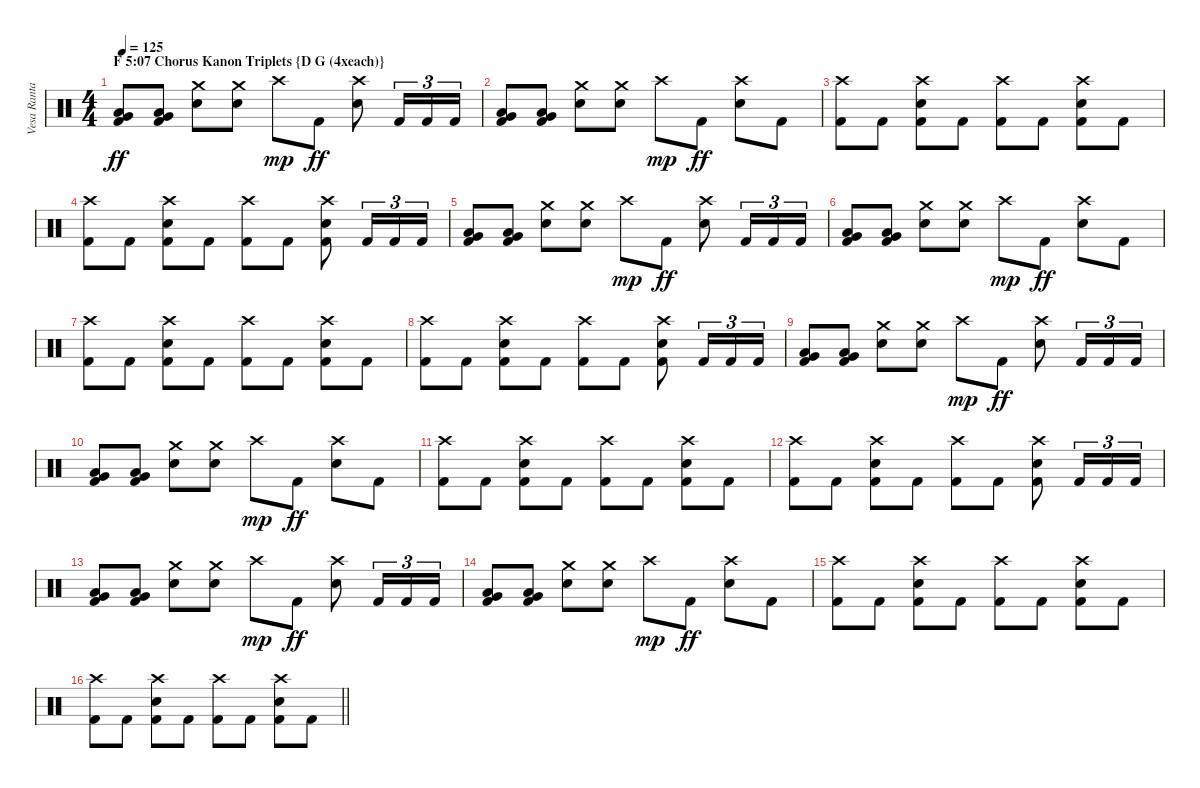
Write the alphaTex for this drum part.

\track ("Vesa Ranta (drums)" "Vesa Ranta") {instrument percussion}
\staff {score}
\articulation defaults
\ts (4 4)
\section ("" "F 5:07 Chorus Kanon Triplets {D G (4xeach)}")
\tempo 125
\clef neutral
\ks c
("Low Tom (hit)" "Very Low Tom (hit)" "Kick (hit) 2").8{dy ff} ("Low Tom (hit)" "Very Low Tom (hit)" "Kick (hit) 2").8 ("Crash medium (hit)" "Electric Snare (hit)").8 ("Crash medium (hit)" "Electric Snare (hit)").8 "Crash high (hit)".8{dy mp} "Kick (hit) 2".8{dy ff} ("Crash high (hit)" "Electric Snare (hit)").8 "Kick (hit) 2".16{tu (3 2)} "Kick (hit) 2".16{tu (3 2)} "Kick (hit) 2".16{tu (3 2)} |
("Low Tom (hit)" "Very Low Tom (hit)" "Kick (hit) 2").8 ("Low Tom (hit)" "Very Low Tom (hit)" "Kick (hit) 2").8 ("Crash medium (hit)" "Electric Snare (hit)").8 ("Crash medium (hit)" "Electric Snare (hit)").8 "Crash high (hit)".8{dy mp} "Kick (hit) 2".8{dy ff} ("Crash high (hit)" "Electric Snare (hit)").8 "Kick (hit) 2".8 |
("Crash high (hit)" "Kick (hit) 2").8 "Kick (hit) 2".8 ("Crash high (hit)" "Electric Snare (hit)" "Kick (hit) 2").8 "Kick (hit) 2".8 ("Crash high (hit)" "Kick (hit) 2").8 "Kick (hit) 2".8 ("Crash high (hit)" "Electric Snare (hit)" "Kick (hit) 2").8 "Kick (hit) 2".8 |
("Crash high (hit)" "Kick (hit) 2").8 "Kick (hit) 2".8 ("Crash high (hit)" "Electric Snare (hit)" "Kick (hit) 2").8 "Kick (hit) 2".8 ("Crash high (hit)" "Kick (hit) 2").8 "Kick (hit) 2".8 ("Crash high (hit)" "Electric Snare (hit)" "Kick (hit) 2").8 "Kick (hit) 2".16{tu (3 2)} "Kick (hit) 2".16{tu (3 2)} "Kick (hit) 2".16{tu (3 2)} |
("Low Tom (hit)" "Very Low Tom (hit)" "Kick (hit) 2").8 ("Low Tom (hit)" "Very Low Tom (hit)" "Kick (hit) 2").8 ("Crash medium (hit)" "Electric Snare (hit)").8 ("Crash medium (hit)" "Electric Snare (hit)").8 "Crash high (hit)".8{dy mp} "Kick (hit) 2".8{dy ff} ("Crash high (hit)" "Electric Snare (hit)").8 "Kick (hit) 2".16{tu (3 2)} "Kick (hit) 2".16{tu (3 2)} "Kick (hit) 2".16{tu (3 2)} |
("Low Tom (hit)" "Very Low Tom (hit)" "Kick (hit) 2").8 ("Low Tom (hit)" "Very Low Tom (hit)" "Kick (hit) 2").8 ("Crash medium (hit)" "Electric Snare (hit)").8 ("Crash medium (hit)" "Electric Snare (hit)").8 "Crash high (hit)".8{dy mp} "Kick (hit) 2".8{dy ff} ("Crash high (hit)" "Electric Snare (hit)").8 "Kick (hit) 2".8 |
("Crash high (hit)" "Kick (hit) 2").8 "Kick (hit) 2".8 ("Crash high (hit)" "Electric Snare (hit)" "Kick (hit) 2").8 "Kick (hit) 2".8 ("Crash high (hit)" "Kick (hit) 2").8 "Kick (hit) 2".8 ("Crash high (hit)" "Electric Snare (hit)" "Kick (hit) 2").8 "Kick (hit) 2".8 |
("Crash high (hit)" "Kick (hit) 2").8 "Kick (hit) 2".8 ("Crash high (hit)" "Electric Snare (hit)" "Kick (hit) 2").8 "Kick (hit) 2".8 ("Crash high (hit)" "Kick (hit) 2").8 "Kick (hit) 2".8 ("Crash high (hit)" "Electric Snare (hit)" "Kick (hit) 2").8 "Kick (hit) 2".16{tu (3 2)} "Kick (hit) 2".16{tu (3 2)} "Kick (hit) 2".16{tu (3 2)} |
("Low Tom (hit)" "Very Low Tom (hit)" "Kick (hit) 2").8 ("Low Tom (hit)" "Very Low Tom (hit)" "Kick (hit) 2").8 ("Crash medium (hit)" "Electric Snare (hit)").8 ("Crash medium (hit)" "Electric Snare (hit)").8 "Crash high (hit)".8{dy mp} "Kick (hit) 2".8{dy ff} ("Crash high (hit)" "Electric Snare (hit)").8 "Kick (hit) 2".16{tu (3 2)} "Kick (hit) 2".16{tu (3 2)} "Kick (hit) 2".16{tu (3 2)} |
("Low Tom (hit)" "Very Low Tom (hit)" "Kick (hit) 2").8 ("Low Tom (hit)" "Very Low Tom (hit)" "Kick (hit) 2").8 ("Crash medium (hit)" "Electric Snare (hit)").8 ("Crash medium (hit)" "Electric Snare (hit)").8 "Crash high (hit)".8{dy mp} "Kick (hit) 2".8{dy ff} ("Crash high (hit)" "Electric Snare (hit)").8 "Kick (hit) 2".8 |
("Crash high (hit)" "Kick (hit) 2").8 "Kick (hit) 2".8 ("Crash high (hit)" "Electric Snare (hit)" "Kick (hit) 2").8 "Kick (hit) 2".8 ("Crash high (hit)" "Kick (hit) 2").8 "Kick (hit) 2".8 ("Crash high (hit)" "Electric Snare (hit)" "Kick (hit) 2").8 "Kick (hit) 2".8 |
("Crash high (hit)" "Kick (hit) 2").8 "Kick (hit) 2".8 ("Crash high (hit)" "Electric Snare (hit)" "Kick (hit) 2").8 "Kick (hit) 2".8 ("Crash high (hit)" "Kick (hit) 2").8 "Kick (hit) 2".8 ("Crash high (hit)" "Electric Snare (hit)" "Kick (hit) 2").8 "Kick (hit) 2".16{tu (3 2)} "Kick (hit) 2".16{tu (3 2)} "Kick (hit) 2".16{tu (3 2)} |
("Low Tom (hit)" "Very Low Tom (hit)" "Kick (hit) 2").8 ("Low Tom (hit)" "Very Low Tom (hit)" "Kick (hit) 2").8 ("Crash medium (hit)" "Electric Snare (hit)").8 ("Crash medium (hit)" "Electric Snare (hit)").8 "Crash high (hit)".8{dy mp} "Kick (hit) 2".8{dy ff} ("Crash high (hit)" "Electric Snare (hit)").8 "Kick (hit) 2".16{tu (3 2)} "Kick (hit) 2".16{tu (3 2)} "Kick (hit) 2".16{tu (3 2)} |
("Low Tom (hit)" "Very Low Tom (hit)" "Kick (hit) 2").8 ("Low Tom (hit)" "Very Low Tom (hit)" "Kick (hit) 2").8 ("Crash medium (hit)" "Electric Snare (hit)").8 ("Crash medium (hit)" "Electric Snare (hit)").8 "Crash high (hit)".8{dy mp} "Kick (hit) 2".8{dy ff} ("Crash high (hit)" "Electric Snare (hit)").8 "Kick (hit) 2".8 |
("Crash high (hit)" "Kick (hit) 2").8 "Kick (hit) 2".8 ("Crash high (hit)" "Electric Snare (hit)" "Kick (hit) 2").8 "Kick (hit) 2".8 ("Crash high (hit)" "Kick (hit) 2").8 "Kick (hit) 2".8 ("Crash high (hit)" "Electric Snare (hit)" "Kick (hit) 2").8 "Kick (hit) 2".8 |
\barLineRight lightlight
("Crash high (hit)" "Kick (hit) 2").8 "Kick (hit) 2".8 ("Crash high (hit)" "Electric Snare (hit)" "Kick (hit) 2").8 "Kick (hit) 2".8 ("Crash high (hit)" "Kick (hit) 2").8 "Kick (hit) 2".8 ("Crash high (hit)" "Electric Snare (hit)" "Kick (hit) 2").8 "Kick (hit) 2".8
